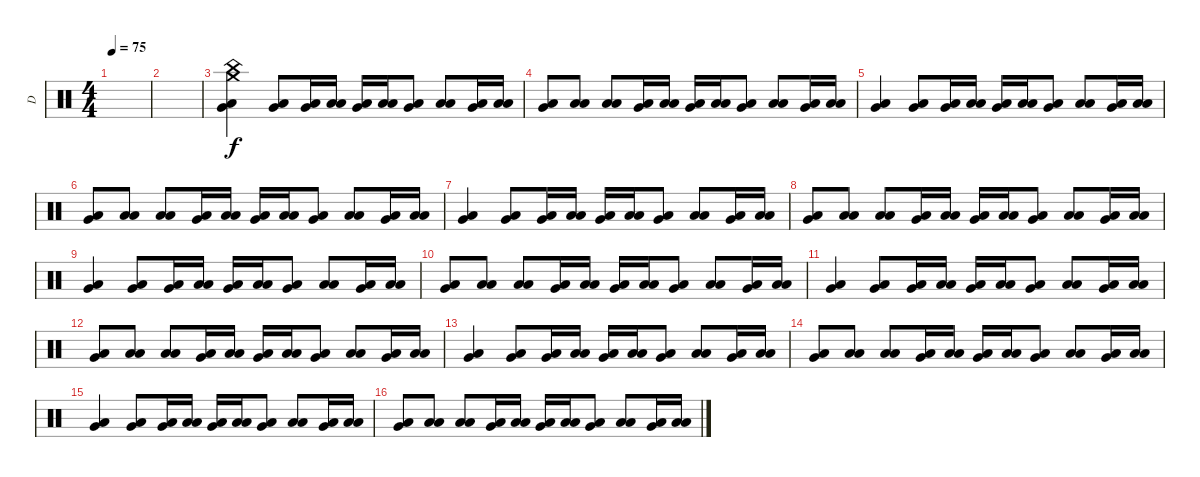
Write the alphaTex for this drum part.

\track ("D" "D") {instrument percussion}
\staff {score}
\articulation defaults
\ts (4 4)
\tempo 75
\clef neutral
\ks c
|
|
("Crash medium (hit)" "Very Low Tom (hit)" "Low Floor Tom (hit)" "China (hit)").4{dy f} ("Very Low Tom (hit)" "Low Floor Tom (hit)").8 ("Very Low Tom (hit)" "Low Floor Tom (hit)").16 ("Low Tom (hit)" "Low Floor Tom (hit)").16 ("Very Low Tom (hit)" "Low Floor Tom (hit)").16 ("Low Tom (hit)" "Low Floor Tom (hit)").16 ("Very Low Tom (hit)" "Low Floor Tom (hit)").8 ("Low Tom (hit)" "Low Floor Tom (hit)").8 ("Very Low Tom (hit)" "Low Floor Tom (hit)").16 ("Low Tom (hit)" "Low Floor Tom (hit)").16 |
("Very Low Tom (hit)" "Low Floor Tom (hit)").8 ("Low Floor Tom (hit)" "Low Floor Tom (hit)").8 ("Low Tom (hit)" "Low Floor Tom (hit)").8 ("Very Low Tom (hit)" "Low Floor Tom (hit)").16 ("Low Tom (hit)" "Low Floor Tom (hit)").16 ("Very Low Tom (hit)" "Low Floor Tom (hit)").16 ("Low Tom (hit)" "Low Floor Tom (hit)").16 ("Very Low Tom (hit)" "Low Floor Tom (hit)").8 ("Low Tom (hit)" "Low Floor Tom (hit)").8 ("Very Low Tom (hit)" "Low Floor Tom (hit)").16 ("Low Tom (hit)" "Low Floor Tom (hit)").16 |
("Very Low Tom (hit)" "Low Floor Tom (hit)").4 ("Very Low Tom (hit)" "Low Floor Tom (hit)").8 ("Very Low Tom (hit)" "Low Floor Tom (hit)").16 ("Low Tom (hit)" "Low Floor Tom (hit)").16 ("Very Low Tom (hit)" "Low Floor Tom (hit)").16 ("Low Tom (hit)" "Low Floor Tom (hit)").16 ("Very Low Tom (hit)" "Low Floor Tom (hit)").8 ("Low Tom (hit)" "Low Floor Tom (hit)").8 ("Very Low Tom (hit)" "Low Floor Tom (hit)").16 ("Low Tom (hit)" "Low Floor Tom (hit)").16 |
("Very Low Tom (hit)" "Low Floor Tom (hit)").8 ("Low Floor Tom (hit)" "Low Floor Tom (hit)").8 ("Low Tom (hit)" "Low Floor Tom (hit)").8 ("Very Low Tom (hit)" "Low Floor Tom (hit)").16 ("Low Tom (hit)" "Low Floor Tom (hit)").16 ("Very Low Tom (hit)" "Low Floor Tom (hit)").16 ("Low Tom (hit)" "Low Floor Tom (hit)").16 ("Very Low Tom (hit)" "Low Floor Tom (hit)").8 ("Low Tom (hit)" "Low Floor Tom (hit)").8 ("Very Low Tom (hit)" "Low Floor Tom (hit)").16 ("Low Tom (hit)" "Low Floor Tom (hit)").16 |
("Very Low Tom (hit)" "Low Floor Tom (hit)").4 ("Very Low Tom (hit)" "Low Floor Tom (hit)").8 ("Very Low Tom (hit)" "Low Floor Tom (hit)").16 ("Low Tom (hit)" "Low Floor Tom (hit)").16 ("Very Low Tom (hit)" "Low Floor Tom (hit)").16 ("Low Tom (hit)" "Low Floor Tom (hit)").16 ("Very Low Tom (hit)" "Low Floor Tom (hit)").8 ("Low Tom (hit)" "Low Floor Tom (hit)").8 ("Very Low Tom (hit)" "Low Floor Tom (hit)").16 ("Low Tom (hit)" "Low Floor Tom (hit)").16 |
("Very Low Tom (hit)" "Low Floor Tom (hit)").8 ("Low Floor Tom (hit)" "Low Floor Tom (hit)").8 ("Low Tom (hit)" "Low Floor Tom (hit)").8 ("Very Low Tom (hit)" "Low Floor Tom (hit)").16 ("Low Tom (hit)" "Low Floor Tom (hit)").16 ("Very Low Tom (hit)" "Low Floor Tom (hit)").16 ("Low Tom (hit)" "Low Floor Tom (hit)").16 ("Very Low Tom (hit)" "Low Floor Tom (hit)").8 ("Low Tom (hit)" "Low Floor Tom (hit)").8 ("Very Low Tom (hit)" "Low Floor Tom (hit)").16 ("Low Tom (hit)" "Low Floor Tom (hit)").16 |
("Very Low Tom (hit)" "Low Floor Tom (hit)").4 ("Very Low Tom (hit)" "Low Floor Tom (hit)").8 ("Very Low Tom (hit)" "Low Floor Tom (hit)").16 ("Low Tom (hit)" "Low Floor Tom (hit)").16 ("Very Low Tom (hit)" "Low Floor Tom (hit)").16 ("Low Tom (hit)" "Low Floor Tom (hit)").16 ("Very Low Tom (hit)" "Low Floor Tom (hit)").8 ("Low Tom (hit)" "Low Floor Tom (hit)").8 ("Very Low Tom (hit)" "Low Floor Tom (hit)").16 ("Low Tom (hit)" "Low Floor Tom (hit)").16 |
("Very Low Tom (hit)" "Low Floor Tom (hit)").8 ("Low Floor Tom (hit)" "Low Floor Tom (hit)").8 ("Low Tom (hit)" "Low Floor Tom (hit)").8 ("Very Low Tom (hit)" "Low Floor Tom (hit)").16 ("Low Tom (hit)" "Low Floor Tom (hit)").16 ("Very Low Tom (hit)" "Low Floor Tom (hit)").16 ("Low Tom (hit)" "Low Floor Tom (hit)").16 ("Very Low Tom (hit)" "Low Floor Tom (hit)").8 ("Low Tom (hit)" "Low Floor Tom (hit)").8 ("Very Low Tom (hit)" "Low Floor Tom (hit)").16 ("Low Tom (hit)" "Low Floor Tom (hit)").16 |
("Very Low Tom (hit)" "Low Floor Tom (hit)").4 ("Very Low Tom (hit)" "Low Floor Tom (hit)").8 ("Very Low Tom (hit)" "Low Floor Tom (hit)").16 ("Low Tom (hit)" "Low Floor Tom (hit)").16 ("Very Low Tom (hit)" "Low Floor Tom (hit)").16 ("Low Tom (hit)" "Low Floor Tom (hit)").16 ("Very Low Tom (hit)" "Low Floor Tom (hit)").8 ("Low Tom (hit)" "Low Floor Tom (hit)").8 ("Very Low Tom (hit)" "Low Floor Tom (hit)").16 ("Low Tom (hit)" "Low Floor Tom (hit)").16 |
("Very Low Tom (hit)" "Low Floor Tom (hit)").8 ("Low Floor Tom (hit)" "Low Floor Tom (hit)").8 ("Low Tom (hit)" "Low Floor Tom (hit)").8 ("Very Low Tom (hit)" "Low Floor Tom (hit)").16 ("Low Tom (hit)" "Low Floor Tom (hit)").16 ("Very Low Tom (hit)" "Low Floor Tom (hit)").16 ("Low Tom (hit)" "Low Floor Tom (hit)").16 ("Very Low Tom (hit)" "Low Floor Tom (hit)").8 ("Low Tom (hit)" "Low Floor Tom (hit)").8 ("Very Low Tom (hit)" "Low Floor Tom (hit)").16 ("Low Tom (hit)" "Low Floor Tom (hit)").16 |
("Very Low Tom (hit)" "Low Floor Tom (hit)").4 ("Very Low Tom (hit)" "Low Floor Tom (hit)").8 ("Very Low Tom (hit)" "Low Floor Tom (hit)").16 ("Low Tom (hit)" "Low Floor Tom (hit)").16 ("Very Low Tom (hit)" "Low Floor Tom (hit)").16 ("Low Tom (hit)" "Low Floor Tom (hit)").16 ("Very Low Tom (hit)" "Low Floor Tom (hit)").8 ("Low Tom (hit)" "Low Floor Tom (hit)").8 ("Very Low Tom (hit)" "Low Floor Tom (hit)").16 ("Low Tom (hit)" "Low Floor Tom (hit)").16 |
("Very Low Tom (hit)" "Low Floor Tom (hit)").8 ("Low Floor Tom (hit)" "Low Floor Tom (hit)").8 ("Low Tom (hit)" "Low Floor Tom (hit)").8 ("Very Low Tom (hit)" "Low Floor Tom (hit)").16 ("Low Tom (hit)" "Low Floor Tom (hit)").16 ("Very Low Tom (hit)" "Low Floor Tom (hit)").16 ("Low Tom (hit)" "Low Floor Tom (hit)").16 ("Very Low Tom (hit)" "Low Floor Tom (hit)").8 ("Low Tom (hit)" "Low Floor Tom (hit)").8 ("Very Low Tom (hit)" "Low Floor Tom (hit)").16 ("Low Tom (hit)" "Low Floor Tom (hit)").16 |
("Very Low Tom (hit)" "Low Floor Tom (hit)").4 ("Very Low Tom (hit)" "Low Floor Tom (hit)").8 ("Very Low Tom (hit)" "Low Floor Tom (hit)").16 ("Low Tom (hit)" "Low Floor Tom (hit)").16 ("Very Low Tom (hit)" "Low Floor Tom (hit)").16 ("Low Tom (hit)" "Low Floor Tom (hit)").16 ("Very Low Tom (hit)" "Low Floor Tom (hit)").8 ("Low Tom (hit)" "Low Floor Tom (hit)").8 ("Very Low Tom (hit)" "Low Floor Tom (hit)").16 ("Low Tom (hit)" "Low Floor Tom (hit)").16 |
("Very Low Tom (hit)" "Low Floor Tom (hit)").8 ("Low Floor Tom (hit)" "Low Floor Tom (hit)").8 ("Low Tom (hit)" "Low Floor Tom (hit)").8 ("Very Low Tom (hit)" "Low Floor Tom (hit)").16 ("Low Tom (hit)" "Low Floor Tom (hit)").16 ("Very Low Tom (hit)" "Low Floor Tom (hit)").16 ("Low Tom (hit)" "Low Floor Tom (hit)").16 ("Very Low Tom (hit)" "Low Floor Tom (hit)").8 ("Low Tom (hit)" "Low Floor Tom (hit)").8 ("Very Low Tom (hit)" "Low Floor Tom (hit)").16 ("Low Tom (hit)" "Low Floor Tom (hit)").16
